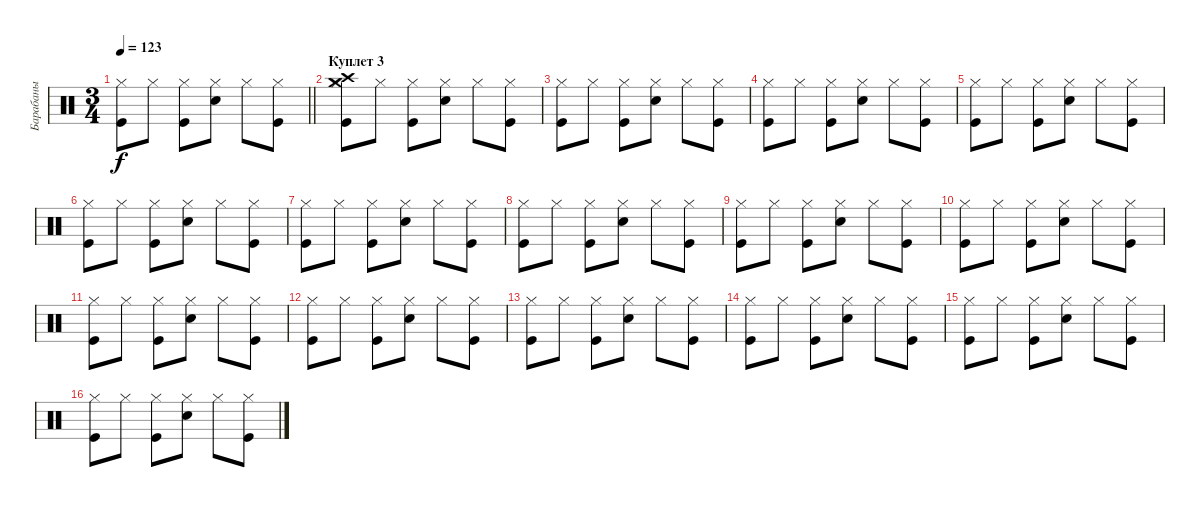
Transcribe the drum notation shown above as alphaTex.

\track ("Барабаны" "Барабаны") {instrument percussion}
\staff {score}
\articulation defaults
\ts (3 4)
\tempo 123
\clef neutral
\barLineRight lightlight
\ks c
("Kick (hit)" "Hi-Hat (closed)").8{dy f} "Hi-Hat (closed)".8 ("Kick (hit)" "Hi-Hat (closed)").8 ("Snare (hit) 2" "Hi-Hat (closed)").8 "Hi-Hat (closed)".8 ("Kick (hit)" "Hi-Hat (closed)").8 |
\section ("" "Куплет 3")
("Kick (hit)" "Hi-Hat (closed)" "Crash high (hit)" "Crash medium (hit)").8 "Hi-Hat (closed)".8 ("Kick (hit)" "Hi-Hat (closed)").8 ("Snare (hit) 2" "Hi-Hat (closed)").8 "Hi-Hat (closed)".8 ("Kick (hit)" "Hi-Hat (closed)").8 |
("Kick (hit)" "Hi-Hat (closed)").8 "Hi-Hat (closed)".8 ("Kick (hit)" "Hi-Hat (closed)").8 ("Snare (hit) 2" "Hi-Hat (closed)").8 "Hi-Hat (closed)".8 ("Kick (hit)" "Hi-Hat (closed)").8 |
("Kick (hit)" "Hi-Hat (closed)").8 "Hi-Hat (closed)".8 ("Kick (hit)" "Hi-Hat (closed)").8 ("Snare (hit) 2" "Hi-Hat (closed)").8 "Hi-Hat (closed)".8 ("Kick (hit)" "Hi-Hat (closed)").8 |
("Kick (hit)" "Hi-Hat (closed)").8 "Hi-Hat (closed)".8 ("Kick (hit)" "Hi-Hat (closed)").8 ("Snare (hit) 2" "Hi-Hat (closed)").8 "Hi-Hat (closed)".8 ("Kick (hit)" "Hi-Hat (closed)").8 |
("Kick (hit)" "Hi-Hat (closed)").8 "Hi-Hat (closed)".8 ("Kick (hit)" "Hi-Hat (closed)").8 ("Snare (hit) 2" "Hi-Hat (closed)").8 "Hi-Hat (closed)".8 ("Kick (hit)" "Hi-Hat (closed)").8 |
("Kick (hit)" "Hi-Hat (closed)").8 "Hi-Hat (closed)".8 ("Kick (hit)" "Hi-Hat (closed)").8 ("Snare (hit) 2" "Hi-Hat (closed)").8 "Hi-Hat (closed)".8 ("Kick (hit)" "Hi-Hat (closed)").8 |
("Kick (hit)" "Hi-Hat (closed)").8 "Hi-Hat (closed)".8 ("Kick (hit)" "Hi-Hat (closed)").8 ("Snare (hit) 2" "Hi-Hat (closed)").8 "Hi-Hat (closed)".8 ("Kick (hit)" "Hi-Hat (closed)").8 |
("Kick (hit)" "Hi-Hat (closed)").8 "Hi-Hat (closed)".8 ("Kick (hit)" "Hi-Hat (closed)").8 ("Snare (hit) 2" "Hi-Hat (closed)").8 "Hi-Hat (closed)".8 ("Kick (hit)" "Hi-Hat (closed)").8 |
("Kick (hit)" "Hi-Hat (closed)").8 "Hi-Hat (closed)".8 ("Kick (hit)" "Hi-Hat (closed)").8 ("Snare (hit) 2" "Hi-Hat (closed)").8 "Hi-Hat (closed)".8 ("Kick (hit)" "Hi-Hat (closed)").8 |
("Kick (hit)" "Hi-Hat (closed)").8 "Hi-Hat (closed)".8 ("Kick (hit)" "Hi-Hat (closed)").8 ("Snare (hit) 2" "Hi-Hat (closed)").8 "Hi-Hat (closed)".8 ("Kick (hit)" "Hi-Hat (closed)").8 |
("Kick (hit)" "Hi-Hat (closed)").8 "Hi-Hat (closed)".8 ("Kick (hit)" "Hi-Hat (closed)").8 ("Snare (hit) 2" "Hi-Hat (closed)").8 "Hi-Hat (closed)".8 ("Kick (hit)" "Hi-Hat (closed)").8 |
("Kick (hit)" "Hi-Hat (closed)").8 "Hi-Hat (closed)".8 ("Kick (hit)" "Hi-Hat (closed)").8 ("Snare (hit) 2" "Hi-Hat (closed)").8 "Hi-Hat (closed)".8 ("Kick (hit)" "Hi-Hat (closed)").8 |
("Kick (hit)" "Hi-Hat (closed)").8 "Hi-Hat (closed)".8 ("Kick (hit)" "Hi-Hat (closed)").8 ("Snare (hit) 2" "Hi-Hat (closed)").8 "Hi-Hat (closed)".8 ("Kick (hit)" "Hi-Hat (closed)").8 |
("Kick (hit)" "Hi-Hat (closed)").8 "Hi-Hat (closed)".8 ("Kick (hit)" "Hi-Hat (closed)").8 ("Snare (hit) 2" "Hi-Hat (closed)").8 "Hi-Hat (closed)".8 ("Kick (hit)" "Hi-Hat (closed)").8 |
("Kick (hit)" "Hi-Hat (closed)").8 "Hi-Hat (closed)".8 ("Kick (hit)" "Hi-Hat (closed)").8 ("Snare (hit) 2" "Hi-Hat (closed)").8 "Hi-Hat (closed)".8 ("Kick (hit)" "Hi-Hat (closed)").8
